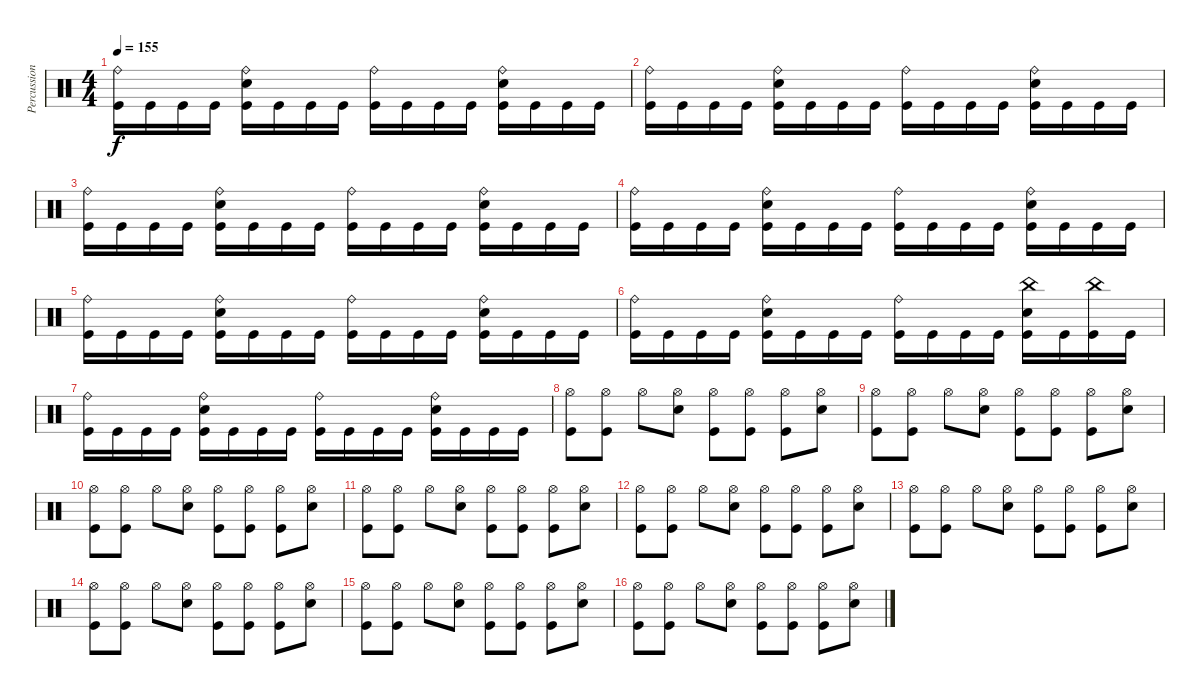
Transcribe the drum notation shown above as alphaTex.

\track ("Percussion" "Percussion") {instrument percussion}
\staff {score}
\articulation defaults
\ts (4 4)
\tempo 155
\clef neutral
\ks c
("Ride (bell)" "Kick (hit)").16{dy f} "Kick (hit)".16 "Kick (hit)".16 "Kick (hit)".16 ("Ride (bell)" "Snare (hit) 2" "Kick (hit)").16 "Kick (hit)".16 "Kick (hit)".16 "Kick (hit)".16 ("Ride (bell)" "Kick (hit)").16 "Kick (hit)".16 "Kick (hit)".16 "Kick (hit)".16 ("Ride (bell)" "Snare (hit) 2" "Kick (hit)").16 "Kick (hit)".16 "Kick (hit)".16 "Kick (hit)".16 |
("Ride (bell)" "Kick (hit)").16 "Kick (hit)".16 "Kick (hit)".16 "Kick (hit)".16 ("Ride (bell)" "Snare (hit) 2" "Kick (hit)").16 "Kick (hit)".16 "Kick (hit)".16 "Kick (hit)".16 ("Ride (bell)" "Kick (hit)").16 "Kick (hit)".16 "Kick (hit)".16 "Kick (hit)".16 ("Ride (bell)" "Snare (hit) 2" "Kick (hit)").16 "Kick (hit)".16 "Kick (hit)".16 "Kick (hit)".16 |
("Ride (bell)" "Kick (hit)").16 "Kick (hit)".16 "Kick (hit)".16 "Kick (hit)".16 ("Ride (bell)" "Snare (hit) 2" "Kick (hit)").16 "Kick (hit)".16 "Kick (hit)".16 "Kick (hit)".16 ("Ride (bell)" "Kick (hit)").16 "Kick (hit)".16 "Kick (hit)".16 "Kick (hit)".16 ("Ride (bell)" "Snare (hit) 2" "Kick (hit)").16 "Kick (hit)".16 "Kick (hit)".16 "Kick (hit)".16 |
("Ride (bell)" "Kick (hit)").16 "Kick (hit)".16 "Kick (hit)".16 "Kick (hit)".16 ("Ride (bell)" "Snare (hit) 2" "Kick (hit)").16 "Kick (hit)".16 "Kick (hit)".16 "Kick (hit)".16 ("Ride (bell)" "Kick (hit)").16 "Kick (hit)".16 "Kick (hit)".16 "Kick (hit)".16 ("Ride (bell)" "Snare (hit) 2" "Kick (hit)").16 "Kick (hit)".16 "Kick (hit)".16 "Kick (hit)".16 |
("Ride (bell)" "Kick (hit)").16 "Kick (hit)".16 "Kick (hit)".16 "Kick (hit)".16 ("Ride (bell)" "Snare (hit) 2" "Kick (hit)").16 "Kick (hit)".16 "Kick (hit)".16 "Kick (hit)".16 ("Ride (bell)" "Kick (hit)").16 "Kick (hit)".16 "Kick (hit)".16 "Kick (hit)".16 ("Ride (bell)" "Snare (hit) 2" "Kick (hit)").16 "Kick (hit)".16 "Kick (hit)".16 "Kick (hit)".16 |
("Ride (bell)" "Kick (hit)").16 "Kick (hit)".16 "Kick (hit)".16 "Kick (hit)".16 ("Ride (bell)" "Snare (hit) 2" "Kick (hit)").16 "Kick (hit)".16 "Kick (hit)".16 "Kick (hit)".16 ("Ride (bell)" "Kick (hit)").16 "Kick (hit)".16 "Kick (hit)".16 "Kick (hit)".16 ("China (hit)" "Snare (hit) 2" "Kick (hit)").16 "Kick (hit)".16 ("China (hit)" "Kick (hit)").16 "Kick (hit)".16 |
("Ride (bell)" "Kick (hit)").16 "Kick (hit)".16 "Kick (hit)".16 "Kick (hit)".16 ("Ride (bell)" "Snare (hit) 2" "Kick (hit)").16 "Kick (hit)".16 "Kick (hit)".16 "Kick (hit)".16 ("Ride (bell)" "Kick (hit)").16 "Kick (hit)".16 "Kick (hit)".16 "Kick (hit)".16 ("Ride (bell)" "Snare (hit) 2" "Kick (hit)").16 "Kick (hit)".16 "Kick (hit)".16 "Kick (hit)".16 |
("Hi-Hat (open)" "Kick (hit)").8 ("Hi-Hat (open)" "Kick (hit)").8 "Hi-Hat (open)".8 ("Hi-Hat (open)" "Snare (hit) 2").8 ("Hi-Hat (open)" "Kick (hit)").8 ("Hi-Hat (open)" "Kick (hit)").8 ("Hi-Hat (open)" "Kick (hit)").8 ("Hi-Hat (open)" "Snare (hit) 2").8 |
("Hi-Hat (open)" "Kick (hit)").8 ("Hi-Hat (open)" "Kick (hit)").8 "Hi-Hat (open)".8 ("Hi-Hat (open)" "Snare (hit) 2").8 ("Hi-Hat (open)" "Kick (hit)").8 ("Hi-Hat (open)" "Kick (hit)").8 ("Hi-Hat (open)" "Kick (hit)").8 ("Hi-Hat (open)" "Snare (hit) 2").8 |
("Hi-Hat (open)" "Kick (hit)").8 ("Hi-Hat (open)" "Kick (hit)").8 "Hi-Hat (open)".8 ("Hi-Hat (open)" "Snare (hit) 2").8 ("Hi-Hat (open)" "Kick (hit)").8 ("Hi-Hat (open)" "Kick (hit)").8 ("Hi-Hat (open)" "Kick (hit)").8 ("Hi-Hat (open)" "Snare (hit) 2").8 |
("Hi-Hat (open)" "Kick (hit)").8 ("Hi-Hat (open)" "Kick (hit)").8 "Hi-Hat (open)".8 ("Hi-Hat (open)" "Snare (hit) 2").8 ("Hi-Hat (open)" "Kick (hit)").8 ("Hi-Hat (open)" "Kick (hit)").8 ("Hi-Hat (open)" "Kick (hit)").8 ("Hi-Hat (open)" "Snare (hit) 2").8 |
("Hi-Hat (open)" "Kick (hit)").8 ("Hi-Hat (open)" "Kick (hit)").8 "Hi-Hat (open)".8 ("Hi-Hat (open)" "Snare (hit) 2").8 ("Hi-Hat (open)" "Kick (hit)").8 ("Hi-Hat (open)" "Kick (hit)").8 ("Hi-Hat (open)" "Kick (hit)").8 ("Hi-Hat (open)" "Snare (hit) 2").8 |
("Hi-Hat (open)" "Kick (hit)").8 ("Hi-Hat (open)" "Kick (hit)").8 "Hi-Hat (open)".8 ("Hi-Hat (open)" "Snare (hit) 2").8 ("Hi-Hat (open)" "Kick (hit)").8 ("Hi-Hat (open)" "Kick (hit)").8 ("Hi-Hat (open)" "Kick (hit)").8 ("Hi-Hat (open)" "Snare (hit) 2").8 |
("Hi-Hat (open)" "Kick (hit)").8 ("Hi-Hat (open)" "Kick (hit)").8 "Hi-Hat (open)".8 ("Hi-Hat (open)" "Snare (hit) 2").8 ("Hi-Hat (open)" "Kick (hit)").8 ("Hi-Hat (open)" "Kick (hit)").8 ("Hi-Hat (open)" "Kick (hit)").8 ("Hi-Hat (open)" "Snare (hit) 2").8 |
("Hi-Hat (open)" "Kick (hit)").8 ("Hi-Hat (open)" "Kick (hit)").8 "Hi-Hat (open)".8 ("Hi-Hat (open)" "Snare (hit) 2").8 ("Hi-Hat (open)" "Kick (hit)").8 ("Hi-Hat (open)" "Kick (hit)").8 ("Hi-Hat (open)" "Kick (hit)").8 ("Hi-Hat (open)" "Snare (hit) 2").8 |
("Hi-Hat (open)" "Kick (hit)").8 ("Hi-Hat (open)" "Kick (hit)").8 "Hi-Hat (open)".8 ("Hi-Hat (open)" "Snare (hit) 2").8 ("Hi-Hat (open)" "Kick (hit)").8 ("Hi-Hat (open)" "Kick (hit)").8 ("Hi-Hat (open)" "Kick (hit)").8 ("Hi-Hat (open)" "Snare (hit) 2").8
